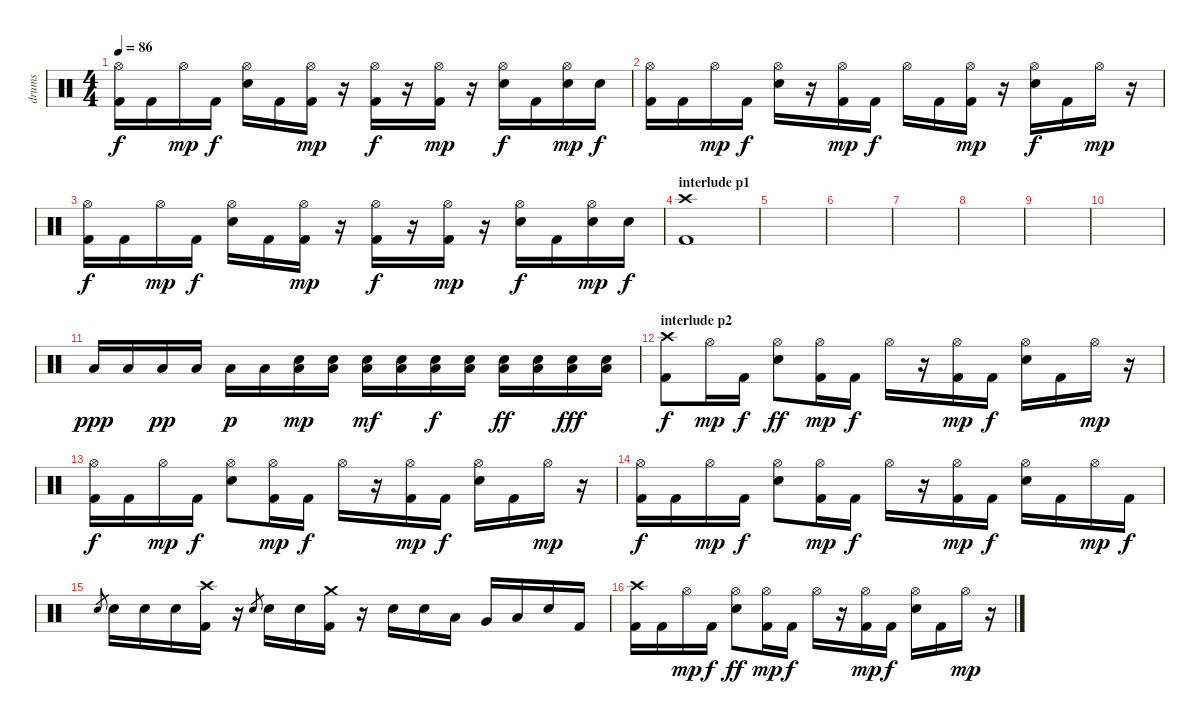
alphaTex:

\track ("drums" "drums") {instrument percussion}
\staff {score}
\articulation defaults
\ts (4 4)
\tempo 86
\clef neutral
\ks c
("Kick (hit) 2" "Hi-Hat (open)").16{dy f} "Kick (hit) 2".16 "Hi-Hat (open)".16{dy mp} "Kick (hit) 2".16{dy f} ("Electric Snare (hit)" "Hi-Hat (open)").16 "Kick (hit) 2".16 ("Kick (hit) 2" "Hi-Hat (open)").16{dy mp} r.16 ("Kick (hit) 2" "Hi-Hat (open)").16{dy f} r.16 ("Kick (hit) 2" "Hi-Hat (open)").16{dy mp} r.16 ("Electric Snare (hit)" "Hi-Hat (open)").16{dy f} "Kick (hit) 2".16 ("Electric Snare (hit)" "Hi-Hat (open)").16{dy mp} "Electric Snare (hit)".16{dy f} |
("Kick (hit) 2" "Hi-Hat (open)").16 "Kick (hit) 2".16 "Hi-Hat (open)".16{dy mp} "Kick (hit) 2".16{dy f} ("Electric Snare (hit)" "Hi-Hat (open)").16 r.16 ("Kick (hit) 2" "Hi-Hat (open)").16{dy mp} "Kick (hit) 2".16{dy f} "Hi-Hat (open)".16 "Kick (hit) 2".16 ("Kick (hit) 2" "Hi-Hat (open)").16{dy mp} r.16 ("Electric Snare (hit)" "Hi-Hat (open)").16{dy f} "Kick (hit) 2".16 "Hi-Hat (open)".16{dy mp} r.16 |
("Kick (hit) 2" "Hi-Hat (open)").16{dy f} "Kick (hit) 2".16 "Hi-Hat (open)".16{dy mp} "Kick (hit) 2".16{dy f} ("Electric Snare (hit)" "Hi-Hat (open)").16 "Kick (hit) 2".16 ("Kick (hit) 2" "Hi-Hat (open)").16{dy mp} r.16 ("Kick (hit) 2" "Hi-Hat (open)").16{dy f} r.16 ("Kick (hit) 2" "Hi-Hat (open)").16{dy mp} r.16 ("Electric Snare (hit)" "Hi-Hat (open)").16{dy f} "Kick (hit) 2".16 ("Electric Snare (hit)" "Hi-Hat (open)").16{dy mp} "Electric Snare (hit)".16{dy f} |
\section ("" "interlude p1")
("Kick (hit) 2" "Crash high (hit)").1 |
|
|
|
|
|
|
"Low Floor Tom (hit)".16{dy ppp} "Low Floor Tom (hit)".16 "Low Floor Tom (hit)".16{dy pp} "Low Floor Tom (hit)".16 "Low Floor Tom (hit)".16{dy p} "Low Floor Tom (hit)".16 ("Low Floor Tom (hit)" "Electric Snare (hit)").16{dy mp} ("Low Floor Tom (hit)" "Electric Snare (hit)").16 ("Low Floor Tom (hit)" "Electric Snare (hit)").16{dy mf} ("Low Floor Tom (hit)" "Electric Snare (hit)").16 ("Low Floor Tom (hit)" "Electric Snare (hit)").16{dy f} ("Low Floor Tom (hit)" "Electric Snare (hit)").16 ("Low Floor Tom (hit)" "Electric Snare (hit)").16{dy ff} ("Low Floor Tom (hit)" "Electric Snare (hit)").16 ("Low Floor Tom (hit)" "Electric Snare (hit)").16{dy fff} ("Low Floor Tom (hit)" "Electric Snare (hit)").16 |
\section ("" "interlude p2")
("Kick (hit) 2" "Crash high (hit)").8{dy f} "Hi-Hat (open)".16{dy mp} "Kick (hit) 2".16{dy f} ("Electric Snare (hit)" "Hi-Hat (open)").8{dy ff} ("Kick (hit) 2" "Hi-Hat (open)").16{dy mp} "Kick (hit) 2".16{dy f} "Hi-Hat (open)".16 r.16 ("Kick (hit) 2" "Hi-Hat (open)").16{dy mp} "Kick (hit) 2".16{dy f} ("Electric Snare (hit)" "Hi-Hat (open)").16 "Kick (hit) 2".16 "Hi-Hat (open)".16{dy mp} r.16 |
("Kick (hit) 2" "Hi-Hat (open)").16{dy f} "Kick (hit) 2".16 "Hi-Hat (open)".16{dy mp} "Kick (hit) 2".16{dy f} ("Electric Snare (hit)" "Hi-Hat (open)").8 ("Kick (hit) 2" "Hi-Hat (open)").16{dy mp} "Kick (hit) 2".16{dy f} "Hi-Hat (open)".16 r.16 ("Kick (hit) 2" "Hi-Hat (open)").16{dy mp} "Kick (hit) 2".16{dy f} ("Electric Snare (hit)" "Hi-Hat (open)").16 "Kick (hit) 2".16 "Hi-Hat (open)".16{dy mp} r.16 |
("Kick (hit) 2" "Hi-Hat (open)").16{dy f} "Kick (hit) 2".16 "Hi-Hat (open)".16{dy mp} "Kick (hit) 2".16{dy f} ("Electric Snare (hit)" "Hi-Hat (open)").8 ("Kick (hit) 2" "Hi-Hat (open)").16{dy mp} "Kick (hit) 2".16{dy f} "Hi-Hat (open)".16 r.16 ("Kick (hit) 2" "Hi-Hat (open)").16{dy mp} "Kick (hit) 2".16{dy f} ("Electric Snare (hit)" "Hi-Hat (open)").16 "Kick (hit) 2".16 "Hi-Hat (open)".16{dy mp} "Kick (hit) 2".16{dy f} |
"Electric Snare (hit)".8{gr} "Electric Snare (hit)".16 "Electric Snare (hit)".16 "Electric Snare (hit)".16 ("Kick (hit) 2" "Crash high (hit)").16 r.16 "Electric Snare (hit)".8{gr} "Electric Snare (hit)".16 "Electric Snare (hit)".16 ("Kick (hit) 2" "Crash medium (hit)").16 r.16 "Electric Snare (hit)".16 "Electric Snare (hit)".16 "Low Tom (hit)".16 "Very Low Tom (hit)".16 "Low Floor Tom (hit)".16 "Electric Snare (hit)".16 "Kick (hit) 2".16 |
("Kick (hit) 2" "Crash high (hit)").16 "Kick (hit) 2".16 "Hi-Hat (open)".16{dy mp} "Kick (hit) 2".16{dy f} ("Electric Snare (hit)" "Hi-Hat (open)").8{dy ff} ("Kick (hit) 2" "Hi-Hat (open)").16{dy mp} "Kick (hit) 2".16{dy f} "Hi-Hat (open)".16 r.16 ("Kick (hit) 2" "Hi-Hat (open)").16{dy mp} "Kick (hit) 2".16{dy f} ("Electric Snare (hit)" "Hi-Hat (open)").16 "Kick (hit) 2".16 "Hi-Hat (open)".16{dy mp} r.16
